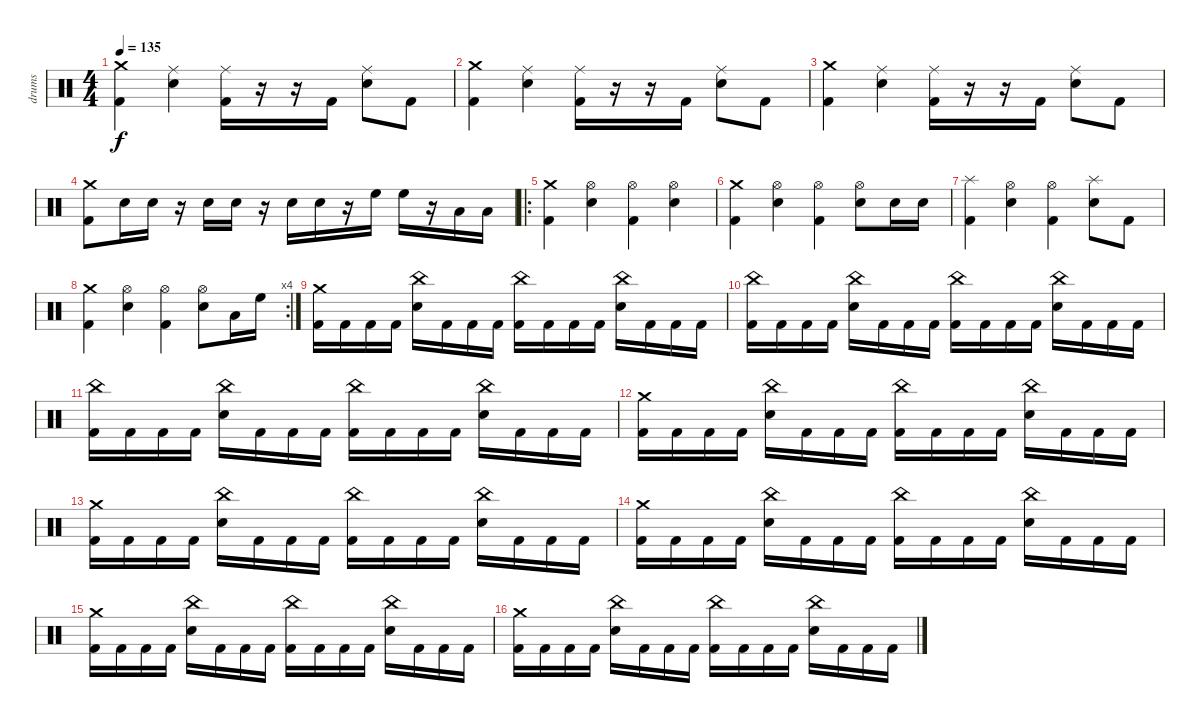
\track ("drums" "drums") {instrument percussion}
\staff {score}
\articulation defaults
\ts (4 4)
\tempo 135
\clef neutral
\ks c
("Crash medium (hit)" "Kick (hit) 2").4{dy f} ("Ride (middle)" "Electric Snare (hit)").4 ("Ride (middle)" "Kick (hit) 2").16 r.16 r.16 "Kick (hit) 2".16 ("Ride (middle)" "Electric Snare (hit)").8 "Kick (hit) 2".8 |
("Crash medium (hit)" "Kick (hit) 2").4 ("Ride (middle)" "Electric Snare (hit)").4 ("Ride (middle)" "Kick (hit) 2").16 r.16 r.16 "Kick (hit) 2".16 ("Ride (middle)" "Electric Snare (hit)").8 "Kick (hit) 2".8 |
("Crash medium (hit)" "Kick (hit) 2").4 ("Ride (middle)" "Electric Snare (hit)").4 ("Ride (middle)" "Kick (hit) 2").16 r.16 r.16 "Kick (hit) 2".16 ("Ride (middle)" "Electric Snare (hit)").8 "Kick (hit) 2".8 |
("Crash medium (hit)" "Kick (hit) 2").8 "Electric Snare (hit)".16 "Electric Snare (hit)".16 r.16 "Electric Snare (hit)".16 "Electric Snare (hit)".16 r.16 "Electric Snare (hit)".16 "Electric Snare (hit)".16 r.16 "High Floor Tom (hit)".16 "High Floor Tom (hit)".16 r.16 "Low Tom (hit)".16 "Low Tom (hit)".16 |
\ro
("Crash medium (hit)" "Kick (hit) 2").4 ("Hi-Hat (open)" "Electric Snare (hit)").4 ("Hi-Hat (open)" "Kick (hit) 2").4 ("Hi-Hat (open)" "Electric Snare (hit)").4 |
("Crash medium (hit)" "Kick (hit) 2").4 ("Hi-Hat (open)" "Electric Snare (hit)").4 ("Hi-Hat (open)" "Kick (hit) 2").4 ("Hi-Hat (open)" "Electric Snare (hit)").8 "Electric Snare (hit)".16 "Electric Snare (hit)".16 |
("Splash (hit)" "Kick (hit) 2").4 ("Hi-Hat (open)" "Electric Snare (hit)").4 ("Hi-Hat (open)" "Kick (hit) 2").4 ("Splash (hit)" "Electric Snare (hit)").8 "Kick (hit) 2".8 |
\rc 4
("Crash medium (hit)" "Kick (hit) 2").4 ("Hi-Hat (open)" "Electric Snare (hit)").4 ("Hi-Hat (open)" "Kick (hit) 2").4 ("Hi-Hat (open)" "Electric Snare (hit)").8 "Low Tom (hit)".16 "High Floor Tom (hit)".16 |
("Crash medium (hit)" "Kick (hit) 2").16 "Kick (hit) 2".16 "Kick (hit) 2".16 "Kick (hit) 2".16 ("China (hit)" "Electric Snare (hit)").16 "Kick (hit) 2".16 "Kick (hit) 2".16 "Kick (hit) 2".16 ("China (hit)" "Kick (hit) 2").16 "Kick (hit) 2".16 "Kick (hit) 2".16 "Kick (hit) 2".16 ("China (hit)" "Electric Snare (hit)").16 "Kick (hit) 2".16 "Kick (hit) 2".16 "Kick (hit) 2".16 |
("China (hit)" "Kick (hit) 2").16 "Kick (hit) 2".16 "Kick (hit) 2".16 "Kick (hit) 2".16 ("China (hit)" "Electric Snare (hit)").16 "Kick (hit) 2".16 "Kick (hit) 2".16 "Kick (hit) 2".16 ("China (hit)" "Kick (hit) 2").16 "Kick (hit) 2".16 "Kick (hit) 2".16 "Kick (hit) 2".16 ("China (hit)" "Electric Snare (hit)").16 "Kick (hit) 2".16 "Kick (hit) 2".16 "Kick (hit) 2".16 |
("China (hit)" "Kick (hit) 2").16 "Kick (hit) 2".16 "Kick (hit) 2".16 "Kick (hit) 2".16 ("China (hit)" "Electric Snare (hit)").16 "Kick (hit) 2".16 "Kick (hit) 2".16 "Kick (hit) 2".16 ("China (hit)" "Kick (hit) 2").16 "Kick (hit) 2".16 "Kick (hit) 2".16 "Kick (hit) 2".16 ("China (hit)" "Electric Snare (hit)").16 "Kick (hit) 2".16 "Kick (hit) 2".16 "Kick (hit) 2".16 |
("Crash medium (hit)" "Kick (hit) 2").16 "Kick (hit) 2".16 "Kick (hit) 2".16 "Kick (hit) 2".16 ("China (hit)" "Electric Snare (hit)").16 "Kick (hit) 2".16 "Kick (hit) 2".16 "Kick (hit) 2".16 ("China (hit)" "Kick (hit) 2").16 "Kick (hit) 2".16 "Kick (hit) 2".16 "Kick (hit) 2".16 ("China (hit)" "Electric Snare (hit)").16 "Kick (hit) 2".16 "Kick (hit) 2".16 "Kick (hit) 2".16 |
("Crash medium (hit)" "Kick (hit) 2").16 "Kick (hit) 2".16 "Kick (hit) 2".16 "Kick (hit) 2".16 ("China (hit)" "Electric Snare (hit)").16 "Kick (hit) 2".16 "Kick (hit) 2".16 "Kick (hit) 2".16 ("China (hit)" "Kick (hit) 2").16 "Kick (hit) 2".16 "Kick (hit) 2".16 "Kick (hit) 2".16 ("China (hit)" "Electric Snare (hit)").16 "Kick (hit) 2".16 "Kick (hit) 2".16 "Kick (hit) 2".16 |
("Crash medium (hit)" "Kick (hit) 2").16 "Kick (hit) 2".16 "Kick (hit) 2".16 "Kick (hit) 2".16 ("China (hit)" "Electric Snare (hit)").16 "Kick (hit) 2".16 "Kick (hit) 2".16 "Kick (hit) 2".16 ("China (hit)" "Kick (hit) 2").16 "Kick (hit) 2".16 "Kick (hit) 2".16 "Kick (hit) 2".16 ("China (hit)" "Electric Snare (hit)").16 "Kick (hit) 2".16 "Kick (hit) 2".16 "Kick (hit) 2".16 |
("Crash medium (hit)" "Kick (hit) 2").16 "Kick (hit) 2".16 "Kick (hit) 2".16 "Kick (hit) 2".16 ("China (hit)" "Electric Snare (hit)").16 "Kick (hit) 2".16 "Kick (hit) 2".16 "Kick (hit) 2".16 ("China (hit)" "Kick (hit) 2").16 "Kick (hit) 2".16 "Kick (hit) 2".16 "Kick (hit) 2".16 ("China (hit)" "Electric Snare (hit)").16 "Kick (hit) 2".16 "Kick (hit) 2".16 "Kick (hit) 2".16 |
("Crash medium (hit)" "Kick (hit) 2").16 "Kick (hit) 2".16 "Kick (hit) 2".16 "Kick (hit) 2".16 ("China (hit)" "Electric Snare (hit)").16 "Kick (hit) 2".16 "Kick (hit) 2".16 "Kick (hit) 2".16 ("China (hit)" "Kick (hit) 2").16 "Kick (hit) 2".16 "Kick (hit) 2".16 "Kick (hit) 2".16 ("China (hit)" "Electric Snare (hit)").16 "Kick (hit) 2".16 "Kick (hit) 2".16 "Kick (hit) 2".16
